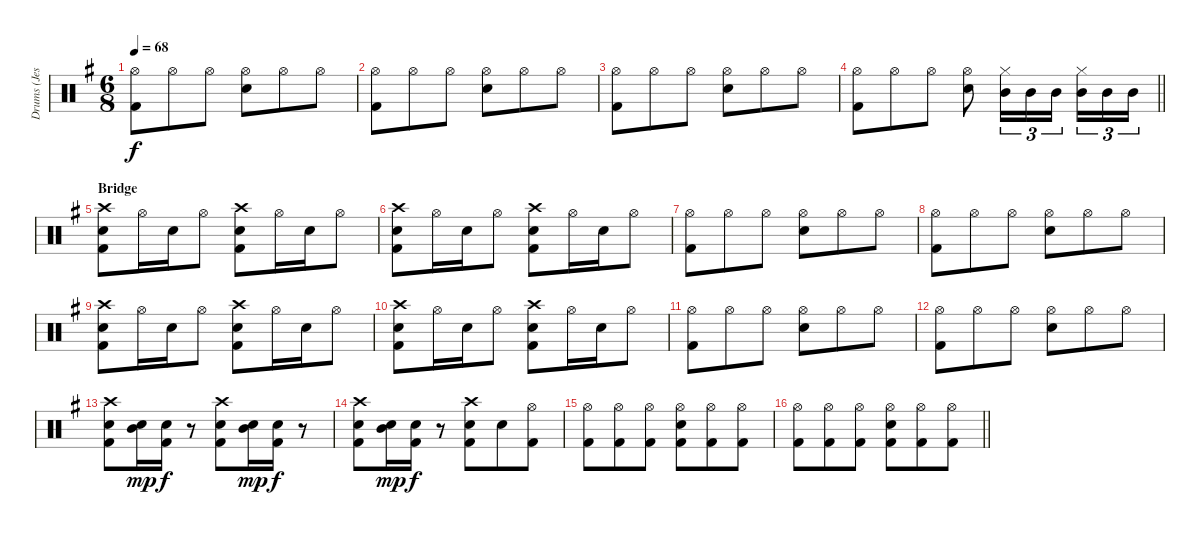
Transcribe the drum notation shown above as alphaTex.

\track ("Drums (Jesper Lind)" "Drums (Jes") {instrument percussion}
\staff {score}
\articulation defaults
\ts (6 8)
\tempo 68
\clef neutral
\ks eminor
("Hi-Hat (open)" "Kick (hit) 2").8{dy f} "Hi-Hat (open)".8 "Hi-Hat (open)".8 ("Hi-Hat (open)" "Electric Snare (hit)").8 "Hi-Hat (open)".8 "Hi-Hat (open)".8 |
("Hi-Hat (open)" "Kick (hit) 2").8 "Hi-Hat (open)".8 "Hi-Hat (open)".8 ("Hi-Hat (open)" "Electric Snare (hit)").8 "Hi-Hat (open)".8 "Hi-Hat (open)".8 |
("Hi-Hat (open)" "Kick (hit) 2").8 "Hi-Hat (open)".8 "Hi-Hat (open)".8 ("Hi-Hat (open)" "Electric Snare (hit)").8 "Hi-Hat (open)".8 "Hi-Hat (open)".8 |
\barLineRight lightlight
("Hi-Hat (open)" "Kick (hit) 2").8 "Hi-Hat (open)".8 "Hi-Hat (open)".8 ("Hi-Hat (open)" "Electric Snare (hit)").8 ("Hi-Hat (closed)" "Mid Tom (hit)").16{tu (3 2)} "Mid Tom (hit)".16{tu (3 2)} "Mid Tom (hit)".16{tu (3 2) beam splitsecondary} ("Hi-Hat (closed)" "Mid Tom (hit)").16{tu (3 2)} "Mid Tom (hit)".16{tu (3 2)} "Mid Tom (hit)".16{tu (3 2)} |
\section ("" "Bridge")
("Kick (hit) 2" "Electric Snare (hit)" "Crash high (hit)").8 "Hi-Hat (open)".16 "Electric Snare (hit)".16 "Hi-Hat (open)".8 ("Kick (hit) 2" "Electric Snare (hit)" "Crash high (hit)").8 "Hi-Hat (open)".16 "Electric Snare (hit)".16 "Hi-Hat (open)".8 |
("Kick (hit) 2" "Electric Snare (hit)" "Crash high (hit)").8 "Hi-Hat (open)".16 "Electric Snare (hit)".16 "Hi-Hat (open)".8 ("Kick (hit) 2" "Electric Snare (hit)" "Crash high (hit)").8 "Hi-Hat (open)".16 "Electric Snare (hit)".16 "Hi-Hat (open)".8 |
("Hi-Hat (open)" "Kick (hit) 2").8 "Hi-Hat (open)".8 "Hi-Hat (open)".8 ("Hi-Hat (open)" "Electric Snare (hit)").8 "Hi-Hat (open)".8 "Hi-Hat (open)".8 |
("Hi-Hat (open)" "Kick (hit) 2").8 "Hi-Hat (open)".8 "Hi-Hat (open)".8 ("Hi-Hat (open)" "Electric Snare (hit)").8 "Hi-Hat (open)".8 "Hi-Hat (open)".8 |
("Kick (hit) 2" "Electric Snare (hit)" "Crash high (hit)").8 "Hi-Hat (open)".16 "Electric Snare (hit)".16 "Hi-Hat (open)".8 ("Kick (hit) 2" "Electric Snare (hit)" "Crash high (hit)").8 "Hi-Hat (open)".16 "Electric Snare (hit)".16 "Hi-Hat (open)".8 |
("Kick (hit) 2" "Electric Snare (hit)" "Crash high (hit)").8 "Hi-Hat (open)".16 "Electric Snare (hit)".16 "Hi-Hat (open)".8 ("Kick (hit) 2" "Electric Snare (hit)" "Crash high (hit)").8 "Hi-Hat (open)".16 "Electric Snare (hit)".16 "Hi-Hat (open)".8 |
("Hi-Hat (open)" "Kick (hit) 2").8 "Hi-Hat (open)".8 "Hi-Hat (open)".8 ("Hi-Hat (open)" "Electric Snare (hit)").8 "Hi-Hat (open)".8 "Hi-Hat (open)".8 |
("Hi-Hat (open)" "Kick (hit) 2").8 "Hi-Hat (open)".8 "Hi-Hat (open)".8 ("Hi-Hat (open)" "Electric Snare (hit)").8 "Hi-Hat (open)".8 "Hi-Hat (open)".8 |
("Kick (hit) 2" "Electric Snare (hit)" "Crash high (hit)").8 ("Electric Snare (hit)" "Mid Tom (hit)").16{dy mp} ("Kick (hit) 2" "Electric Snare (hit)").16{dy f} r.8 ("Kick (hit) 2" "Electric Snare (hit)" "Crash high (hit)").8 ("Electric Snare (hit)" "Mid Tom (hit)").16{dy mp} ("Kick (hit) 2" "Electric Snare (hit)").16{dy f} r.8 |
("Kick (hit) 2" "Electric Snare (hit)" "Crash high (hit)").8 ("Electric Snare (hit)" "Mid Tom (hit)").16{dy mp} ("Kick (hit) 2" "Electric Snare (hit)").16{dy f} r.8 ("Kick (hit) 2" "Electric Snare (hit)" "Crash high (hit)").8 "Electric Snare (hit)".8 ("Hi-Hat (open)" "Kick (hit) 2").8 |
("Hi-Hat (open)" "Kick (hit) 2").8 ("Hi-Hat (open)" "Kick (hit) 2").8 ("Hi-Hat (open)" "Kick (hit) 2").8 ("Hi-Hat (open)" "Kick (hit) 2" "Electric Snare (hit)").8 ("Hi-Hat (open)" "Kick (hit) 2").8 ("Hi-Hat (open)" "Kick (hit) 2").8 |
\barLineRight lightlight
("Hi-Hat (open)" "Kick (hit) 2").8 ("Hi-Hat (open)" "Kick (hit) 2").8 ("Hi-Hat (open)" "Kick (hit) 2").8 ("Hi-Hat (open)" "Kick (hit) 2" "Electric Snare (hit)").8 ("Hi-Hat (open)" "Kick (hit) 2").8 ("Hi-Hat (open)" "Kick (hit) 2").8
